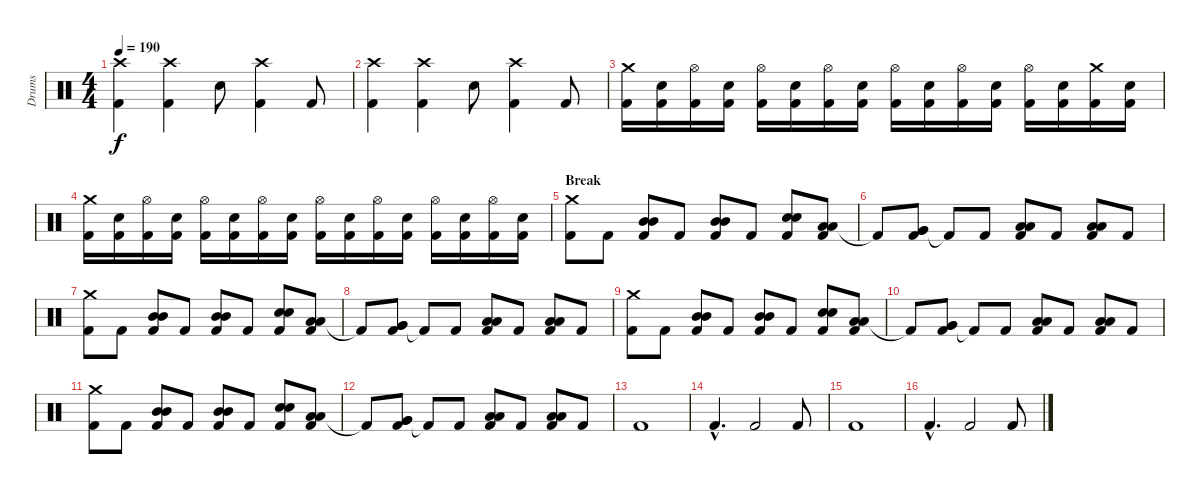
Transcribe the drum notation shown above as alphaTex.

\track ("Drums" "Drums") {instrument percussion}
\staff {score}
\articulation defaults
\ts (4 4)
\tempo 190
\clef neutral
\ks c
("Crash high (hit)" "Kick (hit) 2").4{dy f} ("Crash high (hit)" "Kick (hit) 2").4 "Snare (hit) 2".8 ("Crash high (hit)" "Kick (hit) 2").4 "Kick (hit) 2".8 |
("Crash high (hit)" "Kick (hit) 2").4 ("Crash high (hit)" "Kick (hit) 2").4 "Snare (hit) 2".8 ("Crash high (hit)" "Kick (hit) 2").4 "Kick (hit) 2".8 |
("Crash medium (hit)" "Kick (hit) 2").16 ("Snare (hit) 2" "Kick (hit) 2").16 ("Hi-Hat (open)" "Kick (hit) 2").16 ("Snare (hit) 2" "Kick (hit) 2").16 ("Hi-Hat (open)" "Kick (hit) 2").16 ("Snare (hit) 2" "Kick (hit) 2").16 ("Hi-Hat (open)" "Kick (hit) 2").16 ("Snare (hit) 2" "Kick (hit) 2").16 ("Hi-Hat (open)" "Kick (hit) 2").16 ("Snare (hit) 2" "Kick (hit) 2").16 ("Hi-Hat (open)" "Kick (hit) 2").16 ("Snare (hit) 2" "Kick (hit) 2").16 ("Hi-Hat (open)" "Kick (hit) 2").16 ("Snare (hit) 2" "Kick (hit) 2").16 ("Crash medium (hit)" "Kick (hit) 2").16 ("Snare (hit) 2" "Kick (hit) 2").16 |
("Crash medium (hit)" "Kick (hit) 2").16 ("Snare (hit) 2" "Kick (hit) 2").16 ("Hi-Hat (open)" "Kick (hit) 2").16 ("Snare (hit) 2" "Kick (hit) 2").16 ("Hi-Hat (open)" "Kick (hit) 2").16 ("Snare (hit) 2" "Kick (hit) 2").16 ("Hi-Hat (open)" "Kick (hit) 2").16 ("Snare (hit) 2" "Kick (hit) 2").16 ("Hi-Hat (open)" "Kick (hit) 2").16 ("Snare (hit) 2" "Kick (hit) 2").16 ("Hi-Hat (open)" "Kick (hit) 2").16 ("Snare (hit) 2" "Kick (hit) 2").16 ("Hi-Hat (open)" "Kick (hit) 2").16 ("Snare (hit) 2" "Kick (hit) 2").16 ("Hi-Hat (open)" "Kick (hit) 2").16 ("Snare (hit) 2" "Kick (hit) 2").16 |
\section ("" "Break")
("Crash medium (hit)" "Kick (hit) 2").8 "Kick (hit) 2".8 ("Mid Tom (hit)" "Mid Tom (hit)" "Kick (hit) 2").8 "Kick (hit) 2".8 ("Mid Tom (hit)" "Mid Tom (hit)" "Kick (hit) 2").8 "Kick (hit) 2".8 ("Snare (hit) 2" "Snare (hit) 2" "Kick (hit) 2").8 ("Low Tom (hit)" "Low Tom (hit)" "Kick (hit) 2").8 |
"Kick (hit) 2"{t}.8 ("Very Low Tom (hit)" "Very Low Tom (hit)" "Kick (hit) 2").8 "Kick (hit) 2"{t}.8 "Kick (hit) 2".8 ("Low Floor Tom (hit)" "Low Floor Tom (hit)" "Kick (hit) 2").8 "Kick (hit) 2".8 ("Low Floor Tom (hit)" "Low Floor Tom (hit)" "Kick (hit) 2").8 "Kick (hit) 2".8 |
("Crash medium (hit)" "Kick (hit) 2").8 "Kick (hit) 2".8 ("Mid Tom (hit)" "Mid Tom (hit)" "Kick (hit) 2").8 "Kick (hit) 2".8 ("Mid Tom (hit)" "Mid Tom (hit)" "Kick (hit) 2").8 "Kick (hit) 2".8 ("Snare (hit) 2" "Snare (hit) 2" "Kick (hit) 2").8 ("Low Tom (hit)" "Low Tom (hit)" "Kick (hit) 2").8 |
"Kick (hit) 2"{t}.8 ("Very Low Tom (hit)" "Very Low Tom (hit)" "Kick (hit) 2").8 "Kick (hit) 2"{t}.8 "Kick (hit) 2".8 ("Low Floor Tom (hit)" "Low Floor Tom (hit)" "Kick (hit) 2").8 "Kick (hit) 2".8 ("Low Floor Tom (hit)" "Low Floor Tom (hit)" "Kick (hit) 2").8 "Kick (hit) 2".8 |
("Crash medium (hit)" "Kick (hit) 2").8 "Kick (hit) 2".8 ("Mid Tom (hit)" "Mid Tom (hit)" "Kick (hit) 2").8 "Kick (hit) 2".8 ("Mid Tom (hit)" "Mid Tom (hit)" "Kick (hit) 2").8 "Kick (hit) 2".8 ("Snare (hit) 2" "Snare (hit) 2" "Kick (hit) 2").8 ("Low Tom (hit)" "Low Tom (hit)" "Kick (hit) 2").8 |
"Kick (hit) 2"{t}.8 ("Very Low Tom (hit)" "Very Low Tom (hit)" "Kick (hit) 2").8 "Kick (hit) 2"{t}.8 "Kick (hit) 2".8 ("Low Floor Tom (hit)" "Low Floor Tom (hit)" "Kick (hit) 2").8 "Kick (hit) 2".8 ("Low Floor Tom (hit)" "Low Floor Tom (hit)" "Kick (hit) 2").8 "Kick (hit) 2".8 |
("Crash medium (hit)" "Kick (hit) 2").8 "Kick (hit) 2".8 ("Mid Tom (hit)" "Mid Tom (hit)" "Kick (hit) 2").8 "Kick (hit) 2".8 ("Mid Tom (hit)" "Mid Tom (hit)" "Kick (hit) 2").8 "Kick (hit) 2".8 ("Snare (hit) 2" "Snare (hit) 2" "Kick (hit) 2").8 ("Low Tom (hit)" "Low Tom (hit)" "Kick (hit) 2").8 |
"Kick (hit) 2"{t}.8 ("Very Low Tom (hit)" "Very Low Tom (hit)" "Kick (hit) 2").8 "Kick (hit) 2"{t}.8 "Kick (hit) 2".8 ("Low Floor Tom (hit)" "Low Floor Tom (hit)" "Kick (hit) 2").8 "Kick (hit) 2".8 ("Low Floor Tom (hit)" "Low Floor Tom (hit)" "Kick (hit) 2").8 "Kick (hit) 2".8 |
"Kick (hit) 2".1 |
"Kick (hit) 2"{hac}.4{d} "Kick (hit) 2".2 "Kick (hit) 2".8 |
"Kick (hit) 2".1 |
"Kick (hit) 2"{hac}.4{d} "Kick (hit) 2".2 "Kick (hit) 2".8
